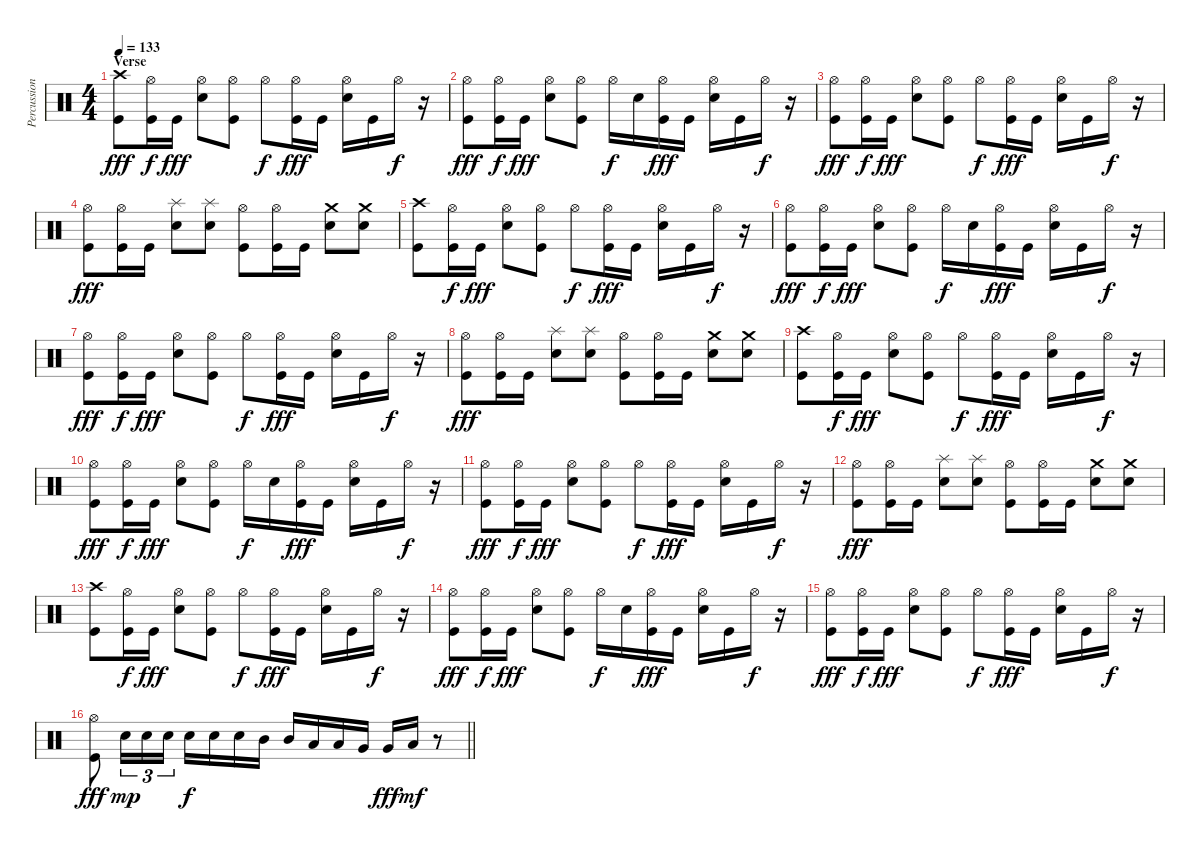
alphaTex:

\track ("Percussion/Nicko McBrain" "Percussion") {instrument percussion}
\staff {score}
\articulation defaults
\ts (4 4)
\section ("" "Verse")
\tempo 133
\clef neutral
\ks c
("Crash high (hit)" "Kick (hit)").8{dy fff} ("Hi-Hat (open)" "Kick (hit)").16{dy f} "Kick (hit)".16{dy fff} ("Hi-Hat (open)" "Electric Snare (hit)").8 ("Hi-Hat (open)" "Kick (hit)").8 "Hi-Hat (open)".8{dy f} ("Hi-Hat (open)" "Kick (hit)").16{dy fff} "Kick (hit)".16 ("Hi-Hat (open)" "Electric Snare (hit)").16 "Kick (hit)".16 "Hi-Hat (open)".16{dy f} r.16 |
("Hi-Hat (open)" "Kick (hit)").8{dy fff} ("Hi-Hat (open)" "Kick (hit)").16{dy f} "Kick (hit)".16{dy fff} ("Hi-Hat (open)" "Electric Snare (hit)").8 ("Hi-Hat (open)" "Kick (hit)").8 "Hi-Hat (open)".16{dy f} "Electric Snare (hit)".16 ("Hi-Hat (open)" "Kick (hit)").16{dy fff} "Kick (hit)".16 ("Hi-Hat (open)" "Electric Snare (hit)").16 "Kick (hit)".16 "Hi-Hat (open)".16{dy f} r.16 |
("Hi-Hat (open)" "Kick (hit)").8{dy fff} ("Hi-Hat (open)" "Kick (hit)").16{dy f} "Kick (hit)".16{dy fff} ("Hi-Hat (open)" "Electric Snare (hit)").8 ("Hi-Hat (open)" "Kick (hit)").8 "Hi-Hat (open)".8{dy f} ("Hi-Hat (open)" "Kick (hit)").16{dy fff} "Kick (hit)".16 ("Hi-Hat (open)" "Electric Snare (hit)").16 "Kick (hit)".16 "Hi-Hat (open)".16{dy f} r.16 |
("Hi-Hat (open)" "Kick (hit)").8{dy fff} ("Hi-Hat (open)" "Kick (hit)").16 "Kick (hit)".16 ("Splash (hit)" "Electric Snare (hit)").8 ("Splash (hit)" "Electric Snare (hit)").8 ("Hi-Hat (open)" "Kick (hit)").8 ("Hi-Hat (open)" "Kick (hit)").16 "Kick (hit)".16 ("Crash medium (hit)" "Electric Snare (hit)").8 ("Crash medium (hit)" "Electric Snare (hit)").8 |
("Crash high (hit)" "Kick (hit)").8 ("Hi-Hat (open)" "Kick (hit)").16{dy f} "Kick (hit)".16{dy fff} ("Hi-Hat (open)" "Electric Snare (hit)").8 ("Hi-Hat (open)" "Kick (hit)").8 "Hi-Hat (open)".8{dy f} ("Hi-Hat (open)" "Kick (hit)").16{dy fff} "Kick (hit)".16 ("Hi-Hat (open)" "Electric Snare (hit)").16 "Kick (hit)".16 "Hi-Hat (open)".16{dy f} r.16 |
("Hi-Hat (open)" "Kick (hit)").8{dy fff} ("Hi-Hat (open)" "Kick (hit)").16{dy f} "Kick (hit)".16{dy fff} ("Hi-Hat (open)" "Electric Snare (hit)").8 ("Hi-Hat (open)" "Kick (hit)").8 "Hi-Hat (open)".16{dy f} "Electric Snare (hit)".16 ("Hi-Hat (open)" "Kick (hit)").16{dy fff} "Kick (hit)".16 ("Hi-Hat (open)" "Electric Snare (hit)").16 "Kick (hit)".16 "Hi-Hat (open)".16{dy f} r.16 |
("Hi-Hat (open)" "Kick (hit)").8{dy fff} ("Hi-Hat (open)" "Kick (hit)").16{dy f} "Kick (hit)".16{dy fff} ("Hi-Hat (open)" "Electric Snare (hit)").8 ("Hi-Hat (open)" "Kick (hit)").8 "Hi-Hat (open)".8{dy f} ("Hi-Hat (open)" "Kick (hit)").16{dy fff} "Kick (hit)".16 ("Hi-Hat (open)" "Electric Snare (hit)").16 "Kick (hit)".16 "Hi-Hat (open)".16{dy f} r.16 |
("Hi-Hat (open)" "Kick (hit)").8{dy fff} ("Hi-Hat (open)" "Kick (hit)").16 "Kick (hit)".16 ("Splash (hit)" "Electric Snare (hit)").8 ("Splash (hit)" "Electric Snare (hit)").8 ("Hi-Hat (open)" "Kick (hit)").8 ("Hi-Hat (open)" "Kick (hit)").16 "Kick (hit)".16 ("Crash medium (hit)" "Electric Snare (hit)").8 ("Crash medium (hit)" "Electric Snare (hit)").8 |
("Crash high (hit)" "Kick (hit)").8 ("Hi-Hat (open)" "Kick (hit)").16{dy f} "Kick (hit)".16{dy fff} ("Hi-Hat (open)" "Electric Snare (hit)").8 ("Hi-Hat (open)" "Kick (hit)").8 "Hi-Hat (open)".8{dy f} ("Hi-Hat (open)" "Kick (hit)").16{dy fff} "Kick (hit)".16 ("Hi-Hat (open)" "Electric Snare (hit)").16 "Kick (hit)".16 "Hi-Hat (open)".16{dy f} r.16 |
("Hi-Hat (open)" "Kick (hit)").8{dy fff} ("Hi-Hat (open)" "Kick (hit)").16{dy f} "Kick (hit)".16{dy fff} ("Hi-Hat (open)" "Electric Snare (hit)").8 ("Hi-Hat (open)" "Kick (hit)").8 "Hi-Hat (open)".16{dy f} "Electric Snare (hit)".16 ("Hi-Hat (open)" "Kick (hit)").16{dy fff} "Kick (hit)".16 ("Hi-Hat (open)" "Electric Snare (hit)").16 "Kick (hit)".16 "Hi-Hat (open)".16{dy f} r.16 |
("Hi-Hat (open)" "Kick (hit)").8{dy fff} ("Hi-Hat (open)" "Kick (hit)").16{dy f} "Kick (hit)".16{dy fff} ("Hi-Hat (open)" "Electric Snare (hit)").8 ("Hi-Hat (open)" "Kick (hit)").8 "Hi-Hat (open)".8{dy f} ("Hi-Hat (open)" "Kick (hit)").16{dy fff} "Kick (hit)".16 ("Hi-Hat (open)" "Electric Snare (hit)").16 "Kick (hit)".16 "Hi-Hat (open)".16{dy f} r.16 |
("Hi-Hat (open)" "Kick (hit)").8{dy fff} ("Hi-Hat (open)" "Kick (hit)").16 "Kick (hit)".16 ("Splash (hit)" "Electric Snare (hit)").8 ("Splash (hit)" "Electric Snare (hit)").8 ("Hi-Hat (open)" "Kick (hit)").8 ("Hi-Hat (open)" "Kick (hit)").16 "Kick (hit)".16 ("Crash medium (hit)" "Electric Snare (hit)").8 ("Crash medium (hit)" "Electric Snare (hit)").8 |
("Crash high (hit)" "Kick (hit)").8 ("Hi-Hat (open)" "Kick (hit)").16{dy f} "Kick (hit)".16{dy fff} ("Hi-Hat (open)" "Electric Snare (hit)").8 ("Hi-Hat (open)" "Kick (hit)").8 "Hi-Hat (open)".8{dy f} ("Hi-Hat (open)" "Kick (hit)").16{dy fff} "Kick (hit)".16 ("Hi-Hat (open)" "Electric Snare (hit)").16 "Kick (hit)".16 "Hi-Hat (open)".16{dy f} r.16 |
("Hi-Hat (open)" "Kick (hit)").8{dy fff} ("Hi-Hat (open)" "Kick (hit)").16{dy f} "Kick (hit)".16{dy fff} ("Hi-Hat (open)" "Electric Snare (hit)").8 ("Hi-Hat (open)" "Kick (hit)").8 "Hi-Hat (open)".16{dy f} "Electric Snare (hit)".16 ("Hi-Hat (open)" "Kick (hit)").16{dy fff} "Kick (hit)".16 ("Hi-Hat (open)" "Electric Snare (hit)").16 "Kick (hit)".16 "Hi-Hat (open)".16{dy f} r.16 |
("Hi-Hat (open)" "Kick (hit)").8{dy fff} ("Hi-Hat (open)" "Kick (hit)").16{dy f} "Kick (hit)".16{dy fff} ("Hi-Hat (open)" "Electric Snare (hit)").8 ("Hi-Hat (open)" "Kick (hit)").8 "Hi-Hat (open)".8{dy f} ("Hi-Hat (open)" "Kick (hit)").16{dy fff} "Kick (hit)".16 ("Hi-Hat (open)" "Electric Snare (hit)").16 "Kick (hit)".16 "Hi-Hat (open)".16{dy f} r.16 |
\barLineRight lightlight
("Hi-Hat (open)" "Kick (hit)").8{dy fff} "Electric Snare (hit)".16{tu (3 2) dy mp} "Electric Snare (hit)".16{tu (3 2)} "Electric Snare (hit)".16{tu (3 2)} "Electric Snare (hit)".16{dy f} "Electric Snare (hit)".16 "Electric Snare (hit)".16 "Mid Tom (hit)".16 "Mid Tom (hit)".16 "Low Tom (hit)".16 "Low Tom (hit)".16 "Very Low Tom (hit)".16 "Very Low Tom (hit)".16{dy fff} "Low Floor Tom (hit)".16{dy mf} r.8
